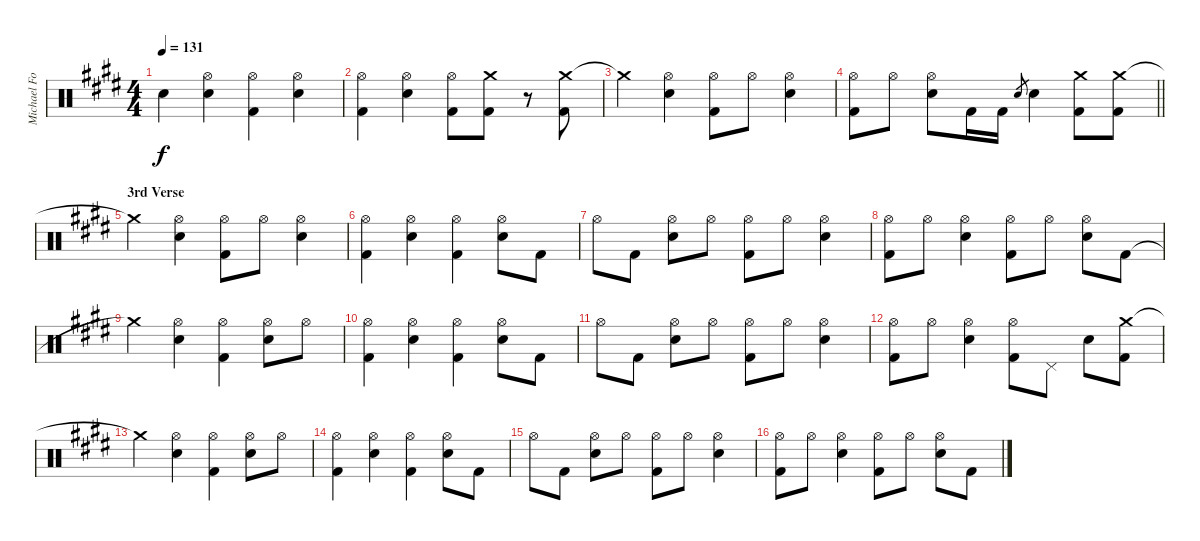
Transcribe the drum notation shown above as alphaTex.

\track ("Michael Foster Drums" "Michael Fo") {instrument percussion}
\staff {score}
\articulation defaults
\ts (4 4)
\tempo 131
\clef neutral
\ks e "Snare (hit)"{t}.4{dy f}
("Hi-Hat (open)" "Snare (hit) 2").4 ("Hi-Hat (open)" "Kick (hit) 2").4 ("Hi-Hat (open)" "Snare (hit) 2").4 |
("Hi-Hat (open)" "Kick (hit) 2").4 ("Hi-Hat (open)" "Snare (hit) 2").4 ("Hi-Hat (open)" "Kick (hit) 2").8 ("Crash medium (hit)" "Kick (hit) 2").8 r.8 ("Crash medium (hit)" "Kick (hit) 2").8 |
"Crash medium (hit)"{t}.4 ("Hi-Hat (open)" "Snare (hit) 2").4 ("Hi-Hat (open)" "Kick (hit) 2").8 "Hi-Hat (open)".8 ("Hi-Hat (open)" "Snare (hit) 2").4 |
\barLineRight lightlight
("Hi-Hat (open)" "Kick (hit) 2").8 "Hi-Hat (open)".8 ("Hi-Hat (open)" "Snare (hit) 2").8 "Kick (hit) 2".16 "Kick (hit) 2".16 "Snare (hit) 2".8{gr} "Snare (hit) 2".4 ("Crash medium (hit)" "Kick (hit) 2").8 ("Crash medium (hit)" "Kick (hit) 2").8 |
\section ("" "3rd Verse")
"Crash medium (hit)"{t}.4 ("Hi-Hat (open)" "Snare (hit) 2").4 ("Hi-Hat (open)" "Kick (hit) 2").8 "Hi-Hat (open)".8 ("Hi-Hat (open)" "Snare (hit) 2").4 |
("Hi-Hat (open)" "Kick (hit) 2").4 ("Hi-Hat (open)" "Snare (hit) 2").4 ("Hi-Hat (open)" "Kick (hit) 2").4 ("Hi-Hat (open)" "Snare (hit) 2").8 "Kick (hit) 2".8 |
"Hi-Hat (open)".8 "Kick (hit) 2".8 ("Hi-Hat (open)" "Snare (hit) 2").8 "Hi-Hat (open)".8 ("Hi-Hat (open)" "Kick (hit) 2").8 "Hi-Hat (open)".8 ("Hi-Hat (open)" "Snare (hit) 2").4 |
("Hi-Hat (open)" "Kick (hit) 2").8 "Hi-Hat (open)".8 ("Hi-Hat (open)" "Snare (hit) 2").4 ("Hi-Hat (open)" "Kick (hit) 2").8 "Hi-Hat (open)".8 ("Hi-Hat (open)" "Snare (hit) 2").8 "Kick (hit) 2".8 |
"Crash medium (hit)"{t}.4 ("Hi-Hat (open)" "Snare (hit) 2").4 ("Hi-Hat (open)" "Kick (hit) 2").4 ("Hi-Hat (open)" "Snare (hit) 2").8 "Hi-Hat (open)".8 |
("Hi-Hat (open)" "Kick (hit) 2").4 ("Hi-Hat (open)" "Snare (hit) 2").4 ("Hi-Hat (open)" "Kick (hit) 2").4 ("Hi-Hat (open)" "Snare (hit) 2").8 "Kick (hit) 2".8 |
"Hi-Hat (open)".8 "Kick (hit) 2".8 ("Hi-Hat (open)" "Snare (hit) 2").8 "Hi-Hat (open)".8 ("Hi-Hat (open)" "Kick (hit) 2").8 "Hi-Hat (open)".8 ("Hi-Hat (open)" "Snare (hit) 2").4 |
("Hi-Hat (open)" "Kick (hit) 2").8 "Hi-Hat (open)".8 ("Hi-Hat (open)" "Snare (hit) 2").4 ("Hi-Hat (open)" "Kick (hit) 2").8 "Pedal Hi-Hat (hit)".8 "Snare (hit) 2".8 ("Crash medium (hit)" "Kick (hit) 2").8 |
"Crash medium (hit)"{t}.4 ("Hi-Hat (open)" "Snare (hit) 2").4 ("Hi-Hat (open)" "Kick (hit) 2").4 ("Hi-Hat (open)" "Snare (hit) 2").8 "Hi-Hat (open)".8 |
("Hi-Hat (open)" "Kick (hit) 2").4 ("Hi-Hat (open)" "Snare (hit) 2").4 ("Hi-Hat (open)" "Kick (hit) 2").4 ("Hi-Hat (open)" "Snare (hit) 2").8 "Kick (hit) 2".8 |
"Hi-Hat (open)".8 "Kick (hit) 2".8 ("Hi-Hat (open)" "Snare (hit) 2").8 "Hi-Hat (open)".8 ("Hi-Hat (open)" "Kick (hit) 2").8 "Hi-Hat (open)".8 ("Hi-Hat (open)" "Snare (hit) 2").4 |
("Hi-Hat (open)" "Kick (hit) 2").8 "Hi-Hat (open)".8 ("Hi-Hat (open)" "Snare (hit) 2").4 ("Hi-Hat (open)" "Kick (hit) 2").8 "Hi-Hat (open)".8 ("Hi-Hat (open)" "Snare (hit) 2").8 "Kick (hit) 2".8
